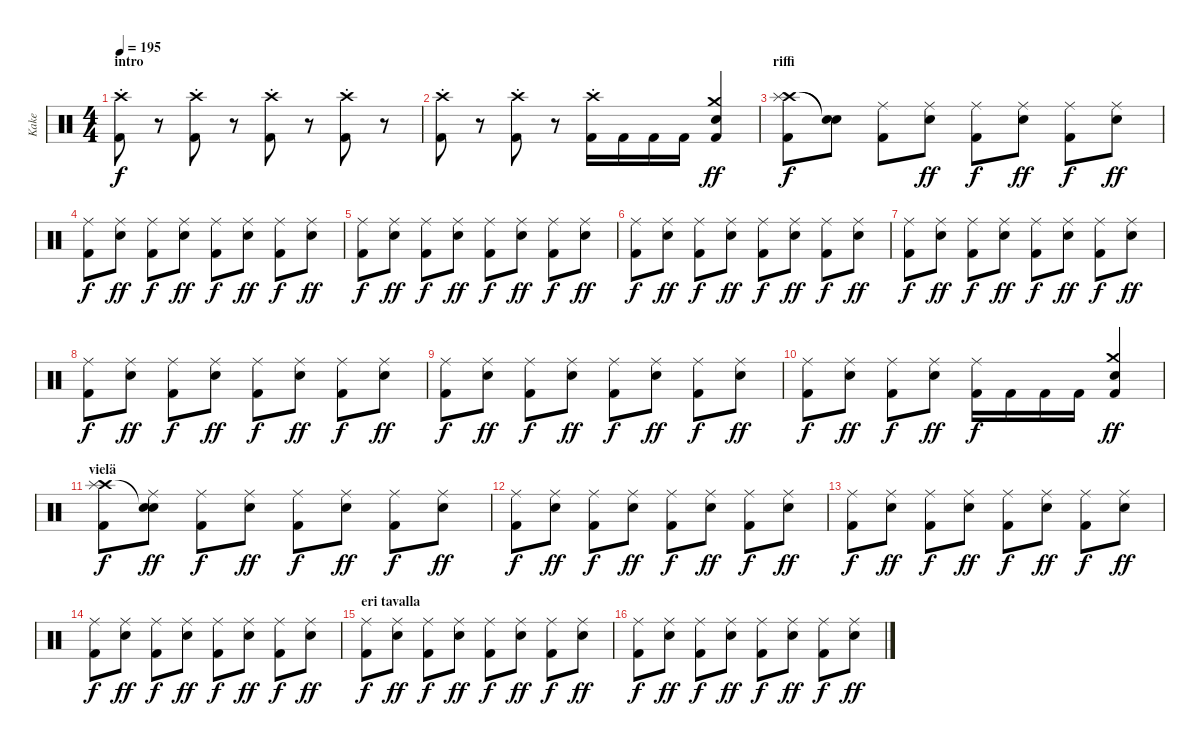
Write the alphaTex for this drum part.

\track ("Kake " "Kake ") {instrument percussion}
\staff {score}
\articulation defaults
\ts (4 4)
\section ("" "intro")
\tempo 195
\clef neutral
\ks c
("Crash high (hit)"{st} "Kick (hit) 2").8{dy f} r.8 ("Crash high (hit)"{st} "Kick (hit) 2").8 r.8 ("Crash high (hit)"{st} "Kick (hit) 2").8 r.8 ("Crash high (hit)"{st} "Kick (hit) 2").8 r.8 |
("Crash high (hit)"{st} "Kick (hit) 2").8 r.8 ("Crash high (hit)"{st} "Kick (hit) 2").8 r.8 ("Crash high (hit)"{st} "Kick (hit) 2").16 "Kick (hit) 2".16 "Kick (hit) 2".16 "Kick (hit) 2".16 ("Crash medium (hit)" "Electric Snare (hit)" "Kick (hit) 2").4{dy ff} |
\section ("" "riffi")
("Crash high (hit)" "Splash (hit)" "Kick (hit) 2").8{dy f} ("Snare (hit)"{t} "Snare (hit)"{t}).8 ("Ride (middle)" "Kick (hit) 2").8 ("Ride (middle)" "Electric Snare (hit)").8{dy ff} ("Ride (middle)" "Kick (hit) 2").8{dy f} ("Ride (middle)" "Electric Snare (hit)").8{dy ff} ("Ride (middle)" "Kick (hit) 2").8{dy f} ("Ride (middle)" "Electric Snare (hit)").8{dy ff} |
("Ride (middle)" "Kick (hit) 2").8{dy f} ("Ride (middle)" "Electric Snare (hit)").8{dy ff} ("Ride (middle)" "Kick (hit) 2").8{dy f} ("Ride (middle)" "Electric Snare (hit)").8{dy ff} ("Ride (middle)" "Kick (hit) 2").8{dy f} ("Ride (middle)" "Electric Snare (hit)").8{dy ff} ("Ride (middle)" "Kick (hit) 2").8{dy f} ("Ride (middle)" "Electric Snare (hit)").8{dy ff} |
("Ride (middle)" "Kick (hit) 2").8{dy f} ("Ride (middle)" "Electric Snare (hit)").8{dy ff} ("Ride (middle)" "Kick (hit) 2").8{dy f} ("Ride (middle)" "Electric Snare (hit)").8{dy ff} ("Ride (middle)" "Kick (hit) 2").8{dy f} ("Ride (middle)" "Electric Snare (hit)").8{dy ff} ("Ride (middle)" "Kick (hit) 2").8{dy f} ("Ride (middle)" "Electric Snare (hit)").8{dy ff} |
("Ride (middle)" "Kick (hit) 2").8{dy f} ("Ride (middle)" "Electric Snare (hit)").8{dy ff} ("Ride (middle)" "Kick (hit) 2").8{dy f} ("Ride (middle)" "Electric Snare (hit)").8{dy ff} ("Ride (middle)" "Kick (hit) 2").8{dy f} ("Ride (middle)" "Electric Snare (hit)").8{dy ff} ("Ride (middle)" "Kick (hit) 2").8{dy f} ("Ride (middle)" "Electric Snare (hit)").8{dy ff} |
("Ride (middle)" "Kick (hit) 2").8{dy f} ("Ride (middle)" "Electric Snare (hit)").8{dy ff} ("Ride (middle)" "Kick (hit) 2").8{dy f} ("Ride (middle)" "Electric Snare (hit)").8{dy ff} ("Ride (middle)" "Kick (hit) 2").8{dy f} ("Ride (middle)" "Electric Snare (hit)").8{dy ff} ("Ride (middle)" "Kick (hit) 2").8{dy f} ("Ride (middle)" "Electric Snare (hit)").8{dy ff} |
("Ride (middle)" "Kick (hit) 2").8{dy f} ("Ride (middle)" "Electric Snare (hit)").8{dy ff} ("Ride (middle)" "Kick (hit) 2").8{dy f} ("Ride (middle)" "Electric Snare (hit)").8{dy ff} ("Ride (middle)" "Kick (hit) 2").8{dy f} ("Ride (middle)" "Electric Snare (hit)").8{dy ff} ("Ride (middle)" "Kick (hit) 2").8{dy f} ("Ride (middle)" "Electric Snare (hit)").8{dy ff} |
("Ride (middle)" "Kick (hit) 2").8{dy f} ("Ride (middle)" "Electric Snare (hit)").8{dy ff} ("Ride (middle)" "Kick (hit) 2").8{dy f} ("Ride (middle)" "Electric Snare (hit)").8{dy ff} ("Ride (middle)" "Kick (hit) 2").8{dy f} ("Ride (middle)" "Electric Snare (hit)").8{dy ff} ("Ride (middle)" "Kick (hit) 2").8{dy f} ("Ride (middle)" "Electric Snare (hit)").8{dy ff} |
("Ride (middle)" "Kick (hit) 2").8{dy f} ("Ride (middle)" "Electric Snare (hit)").8{dy ff} ("Ride (middle)" "Kick (hit) 2").8{dy f} ("Ride (middle)" "Electric Snare (hit)").8{dy ff} ("Ride (middle)" "Kick (hit) 2").16{dy f} "Kick (hit) 2".16 "Kick (hit) 2".16 "Kick (hit) 2".16 ("Crash medium (hit)" "Electric Snare (hit)" "Kick (hit) 2").4{dy ff} |
\section ("" "vielä")
("Crash high (hit)" "Splash (hit)" "Kick (hit) 2").8{dy f} ("Snare (hit)"{t} "Ride (middle)" "Electric Snare (hit)").8{dy ff} ("Ride (middle)" "Kick (hit) 2").8{dy f} ("Ride (middle)" "Electric Snare (hit)").8{dy ff} ("Ride (middle)" "Kick (hit) 2").8{dy f} ("Ride (middle)" "Electric Snare (hit)").8{dy ff} ("Ride (middle)" "Kick (hit) 2").8{dy f} ("Ride (middle)" "Electric Snare (hit)").8{dy ff} |
("Ride (middle)" "Kick (hit) 2").8{dy f} ("Ride (middle)" "Electric Snare (hit)").8{dy ff} ("Ride (middle)" "Kick (hit) 2").8{dy f} ("Ride (middle)" "Electric Snare (hit)").8{dy ff} ("Ride (middle)" "Kick (hit) 2").8{dy f} ("Ride (middle)" "Electric Snare (hit)").8{dy ff} ("Ride (middle)" "Kick (hit) 2").8{dy f} ("Ride (middle)" "Electric Snare (hit)").8{dy ff} |
("Ride (middle)" "Kick (hit) 2").8{dy f} ("Ride (middle)" "Electric Snare (hit)").8{dy ff} ("Ride (middle)" "Kick (hit) 2").8{dy f} ("Ride (middle)" "Electric Snare (hit)").8{dy ff} ("Ride (middle)" "Kick (hit) 2").8{dy f} ("Ride (middle)" "Electric Snare (hit)").8{dy ff} ("Ride (middle)" "Kick (hit) 2").8{dy f} ("Ride (middle)" "Electric Snare (hit)").8{dy ff} |
("Ride (middle)" "Kick (hit) 2").8{dy f} ("Ride (middle)" "Electric Snare (hit)").8{dy ff} ("Ride (middle)" "Kick (hit) 2").8{dy f} ("Ride (middle)" "Electric Snare (hit)").8{dy ff} ("Ride (middle)" "Kick (hit) 2").8{dy f} ("Ride (middle)" "Electric Snare (hit)").8{dy ff} ("Ride (middle)" "Kick (hit) 2").8{dy f} ("Ride (middle)" "Electric Snare (hit)").8{dy ff} |
\section ("" "eri tavalla")
("Ride (middle)" "Kick (hit) 2").8{dy f} ("Ride (middle)" "Electric Snare (hit)").8{dy ff} ("Ride (middle)" "Kick (hit) 2").8{dy f} ("Ride (middle)" "Electric Snare (hit)").8{dy ff} ("Ride (middle)" "Kick (hit) 2").8{dy f} ("Ride (middle)" "Electric Snare (hit)").8{dy ff} ("Ride (middle)" "Kick (hit) 2").8{dy f} ("Ride (middle)" "Electric Snare (hit)").8{dy ff} |
("Ride (middle)" "Kick (hit) 2").8{dy f} ("Ride (middle)" "Electric Snare (hit)").8{dy ff} ("Ride (middle)" "Kick (hit) 2").8{dy f} ("Ride (middle)" "Electric Snare (hit)").8{dy ff} ("Ride (middle)" "Kick (hit) 2").8{dy f} ("Ride (middle)" "Electric Snare (hit)").8{dy ff} ("Ride (middle)" "Kick (hit) 2").8{dy f} ("Ride (middle)" "Electric Snare (hit)").8{dy ff}
